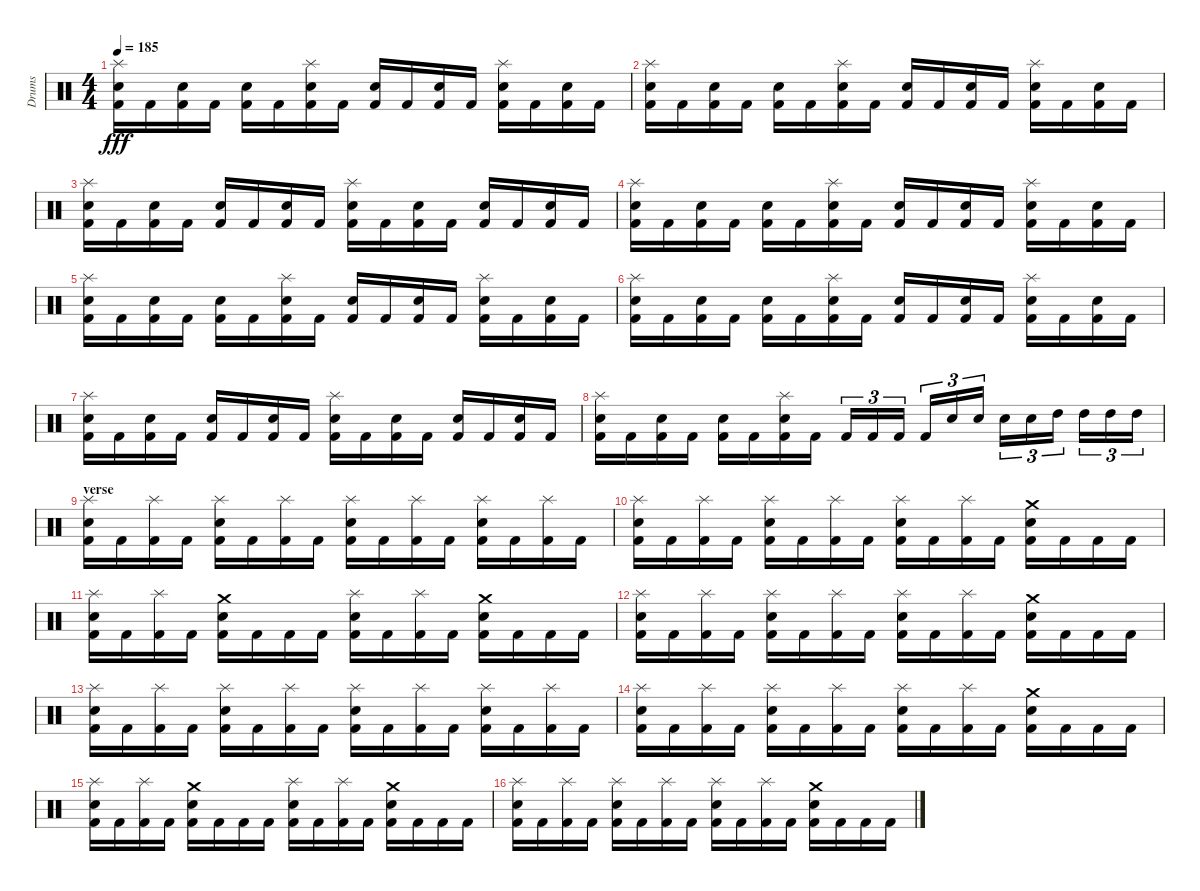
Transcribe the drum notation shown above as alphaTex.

\track ("Drums" "Drums") {instrument percussion}
\staff {score}
\articulation defaults
\ts (4 4)
\tempo 185
\clef neutral
\ks c
("Splash (hit)" "Snare (hit) 2" "Kick (hit) 2").16{dy fff} "Kick (hit) 2".16 ("Electric Snare (hit)" "Kick (hit) 2").16 "Kick (hit) 2".16 ("Electric Snare (hit)" "Kick (hit) 2").16 "Kick (hit) 2".16 ("Splash (hit)" "Snare (hit) 2" "Kick (hit) 2").16 "Kick (hit) 2".16 ("Electric Snare (hit)" "Kick (hit) 2").16 "Kick (hit) 2".16 ("Electric Snare (hit)" "Kick (hit) 2").16 "Kick (hit) 2".16 ("Splash (hit)" "Snare (hit) 2" "Kick (hit) 2").16 "Kick (hit) 2".16 ("Electric Snare (hit)" "Kick (hit) 2").16 "Kick (hit) 2".16 |
("Splash (hit)" "Snare (hit) 2" "Kick (hit) 2").16 "Kick (hit) 2".16 ("Electric Snare (hit)" "Kick (hit) 2").16 "Kick (hit) 2".16 ("Electric Snare (hit)" "Kick (hit) 2").16 "Kick (hit) 2".16 ("Splash (hit)" "Snare (hit) 2" "Kick (hit) 2").16 "Kick (hit) 2".16 ("Electric Snare (hit)" "Kick (hit) 2").16 "Kick (hit) 2".16 ("Electric Snare (hit)" "Kick (hit) 2").16 "Kick (hit) 2".16 ("Splash (hit)" "Snare (hit) 2" "Kick (hit) 2").16 "Kick (hit) 2".16 ("Electric Snare (hit)" "Kick (hit) 2").16 "Kick (hit) 2".16 |
("Splash (hit)" "Snare (hit) 2" "Kick (hit) 2").16 "Kick (hit) 2".16 ("Electric Snare (hit)" "Kick (hit) 2").16 "Kick (hit) 2".16 ("Electric Snare (hit)" "Kick (hit) 2").16 "Kick (hit) 2".16 ("Snare (hit) 2" "Kick (hit) 2").16 "Kick (hit) 2".16 ("Splash (hit)" "Snare (hit) 2" "Kick (hit) 2").16 "Kick (hit) 2".16 ("Electric Snare (hit)" "Kick (hit) 2").16 "Kick (hit) 2".16 ("Electric Snare (hit)" "Kick (hit) 2").16 "Kick (hit) 2".16 ("Snare (hit) 2" "Kick (hit) 2").16 "Kick (hit) 2".16 |
("Splash (hit)" "Snare (hit) 2" "Kick (hit) 2").16 "Kick (hit) 2".16 ("Electric Snare (hit)" "Kick (hit) 2").16 "Kick (hit) 2".16 ("Electric Snare (hit)" "Kick (hit) 2").16 "Kick (hit) 2".16 ("Splash (hit)" "Snare (hit) 2" "Kick (hit) 2").16 "Kick (hit) 2".16 ("Electric Snare (hit)" "Kick (hit) 2").16 "Kick (hit) 2".16 ("Electric Snare (hit)" "Kick (hit) 2").16 "Kick (hit) 2".16 ("Splash (hit)" "Snare (hit) 2" "Kick (hit) 2").16 "Kick (hit) 2".16 ("Electric Snare (hit)" "Kick (hit) 2").16 "Kick (hit) 2".16 |
("Splash (hit)" "Snare (hit) 2" "Kick (hit) 2").16 "Kick (hit) 2".16 ("Electric Snare (hit)" "Kick (hit) 2").16 "Kick (hit) 2".16 ("Electric Snare (hit)" "Kick (hit) 2").16 "Kick (hit) 2".16 ("Splash (hit)" "Snare (hit) 2" "Kick (hit) 2").16 "Kick (hit) 2".16 ("Electric Snare (hit)" "Kick (hit) 2").16 "Kick (hit) 2".16 ("Electric Snare (hit)" "Kick (hit) 2").16 "Kick (hit) 2".16 ("Splash (hit)" "Snare (hit) 2" "Kick (hit) 2").16 "Kick (hit) 2".16 ("Electric Snare (hit)" "Kick (hit) 2").16 "Kick (hit) 2".16 |
("Splash (hit)" "Snare (hit) 2" "Kick (hit) 2").16 "Kick (hit) 2".16 ("Electric Snare (hit)" "Kick (hit) 2").16 "Kick (hit) 2".16 ("Electric Snare (hit)" "Kick (hit) 2").16 "Kick (hit) 2".16 ("Splash (hit)" "Snare (hit) 2" "Kick (hit) 2").16 "Kick (hit) 2".16 ("Electric Snare (hit)" "Kick (hit) 2").16 "Kick (hit) 2".16 ("Electric Snare (hit)" "Kick (hit) 2").16 "Kick (hit) 2".16 ("Splash (hit)" "Snare (hit) 2" "Kick (hit) 2").16 "Kick (hit) 2".16 ("Electric Snare (hit)" "Kick (hit) 2").16 "Kick (hit) 2".16 |
("Splash (hit)" "Snare (hit) 2" "Kick (hit) 2").16 "Kick (hit) 2".16 ("Electric Snare (hit)" "Kick (hit) 2").16 "Kick (hit) 2".16 ("Electric Snare (hit)" "Kick (hit) 2").16 "Kick (hit) 2".16 ("Snare (hit) 2" "Kick (hit) 2").16 "Kick (hit) 2".16 ("Splash (hit)" "Snare (hit) 2" "Kick (hit) 2").16 "Kick (hit) 2".16 ("Electric Snare (hit)" "Kick (hit) 2").16 "Kick (hit) 2".16 ("Electric Snare (hit)" "Kick (hit) 2").16 "Kick (hit) 2".16 ("Snare (hit) 2" "Kick (hit) 2").16 "Kick (hit) 2".16 |
("Splash (hit)" "Snare (hit) 2" "Kick (hit) 2").16 "Kick (hit) 2".16 ("Electric Snare (hit)" "Kick (hit) 2").16 "Kick (hit) 2".16 ("Electric Snare (hit)" "Kick (hit) 2").16 "Kick (hit) 2".16 ("Splash (hit)" "Snare (hit) 2" "Kick (hit) 2").16 "Kick (hit) 2".16 "Kick (hit) 2".16{tu (3 2)} "Kick (hit) 2".16{tu (3 2)} "Kick (hit) 2".16{tu (3 2)} "Kick (hit) 2".16{tu (3 2)} "Electric Snare (hit)".16{tu (3 2)} "Electric Snare (hit)".16{tu (3 2)} "Snare (hit) 2".16{tu (3 2)} "Snare (hit) 2".16{tu (3 2)} "High Tom (hit)".16{tu (3 2)} "High Tom (hit)".16{tu (3 2)} "High Tom (hit)".16{tu (3 2)} "High Tom (hit)".16{tu (3 2)} |
\section ("" "verse")
("Splash (hit)" "Electric Snare (hit)" "Kick (hit) 2").16 "Kick (hit) 2".16 ("Splash (hit)" "Kick (hit) 2").16 "Kick (hit) 2".16 ("Splash (hit)" "Electric Snare (hit)" "Kick (hit) 2").16 "Kick (hit) 2".16 ("Splash (hit)" "Kick (hit) 2").16 "Kick (hit) 2".16 ("Splash (hit)" "Electric Snare (hit)" "Kick (hit) 2").16 "Kick (hit) 2".16 ("Splash (hit)" "Kick (hit) 2").16 "Kick (hit) 2".16 ("Splash (hit)" "Electric Snare (hit)" "Kick (hit) 2").16 "Kick (hit) 2".16 ("Splash (hit)" "Kick (hit) 2").16 "Kick (hit) 2".16 |
("Splash (hit)" "Electric Snare (hit)" "Kick (hit) 2").16 "Kick (hit) 2".16 ("Splash (hit)" "Kick (hit) 2").16 "Kick (hit) 2".16 ("Splash (hit)" "Electric Snare (hit)" "Kick (hit) 2").16 "Kick (hit) 2".16 ("Splash (hit)" "Kick (hit) 2").16 "Kick (hit) 2".16 ("Splash (hit)" "Electric Snare (hit)" "Kick (hit) 2").16 "Kick (hit) 2".16 ("Splash (hit)" "Kick (hit) 2").16 "Kick (hit) 2".16 ("Crash medium (hit)" "Electric Snare (hit)" "Kick (hit) 2").16 "Kick (hit) 2".16 "Kick (hit) 2".16 "Kick (hit) 2".16 |
("Splash (hit)" "Electric Snare (hit)" "Kick (hit) 2").16 "Kick (hit) 2".16 ("Splash (hit)" "Kick (hit) 2").16 "Kick (hit) 2".16 ("Crash medium (hit)" "Electric Snare (hit)" "Kick (hit) 2").16 "Kick (hit) 2".16 "Kick (hit) 2".16 "Kick (hit) 2".16 ("Splash (hit)" "Electric Snare (hit)" "Kick (hit) 2").16 "Kick (hit) 2".16 ("Splash (hit)" "Kick (hit) 2").16 "Kick (hit) 2".16 ("Crash medium (hit)" "Electric Snare (hit)" "Kick (hit) 2").16 "Kick (hit) 2".16 "Kick (hit) 2".16 "Kick (hit) 2".16 |
("Splash (hit)" "Electric Snare (hit)" "Kick (hit) 2").16 "Kick (hit) 2".16 ("Splash (hit)" "Kick (hit) 2").16 "Kick (hit) 2".16 ("Splash (hit)" "Electric Snare (hit)" "Kick (hit) 2").16 "Kick (hit) 2".16 ("Splash (hit)" "Kick (hit) 2").16 "Kick (hit) 2".16 ("Splash (hit)" "Electric Snare (hit)" "Kick (hit) 2").16 "Kick (hit) 2".16 ("Splash (hit)" "Kick (hit) 2").16 "Kick (hit) 2".16 ("Crash medium (hit)" "Electric Snare (hit)" "Kick (hit) 2").16 "Kick (hit) 2".16 "Kick (hit) 2".16 "Kick (hit) 2".16 |
("Splash (hit)" "Electric Snare (hit)" "Kick (hit) 2").16 "Kick (hit) 2".16 ("Splash (hit)" "Kick (hit) 2").16 "Kick (hit) 2".16 ("Splash (hit)" "Electric Snare (hit)" "Kick (hit) 2").16 "Kick (hit) 2".16 ("Splash (hit)" "Kick (hit) 2").16 "Kick (hit) 2".16 ("Splash (hit)" "Electric Snare (hit)" "Kick (hit) 2").16 "Kick (hit) 2".16 ("Splash (hit)" "Kick (hit) 2").16 "Kick (hit) 2".16 ("Splash (hit)" "Electric Snare (hit)" "Kick (hit) 2").16 "Kick (hit) 2".16 ("Splash (hit)" "Kick (hit) 2").16 "Kick (hit) 2".16 |
("Splash (hit)" "Electric Snare (hit)" "Kick (hit) 2").16 "Kick (hit) 2".16 ("Splash (hit)" "Kick (hit) 2").16 "Kick (hit) 2".16 ("Splash (hit)" "Electric Snare (hit)" "Kick (hit) 2").16 "Kick (hit) 2".16 ("Splash (hit)" "Kick (hit) 2").16 "Kick (hit) 2".16 ("Splash (hit)" "Electric Snare (hit)" "Kick (hit) 2").16 "Kick (hit) 2".16 ("Splash (hit)" "Kick (hit) 2").16 "Kick (hit) 2".16 ("Crash medium (hit)" "Electric Snare (hit)" "Kick (hit) 2").16 "Kick (hit) 2".16 "Kick (hit) 2".16 "Kick (hit) 2".16 |
("Splash (hit)" "Electric Snare (hit)" "Kick (hit) 2").16 "Kick (hit) 2".16 ("Splash (hit)" "Kick (hit) 2").16 "Kick (hit) 2".16 ("Crash medium (hit)" "Electric Snare (hit)" "Kick (hit) 2").16 "Kick (hit) 2".16 "Kick (hit) 2".16 "Kick (hit) 2".16 ("Splash (hit)" "Electric Snare (hit)" "Kick (hit) 2").16 "Kick (hit) 2".16 ("Splash (hit)" "Kick (hit) 2").16 "Kick (hit) 2".16 ("Crash medium (hit)" "Electric Snare (hit)" "Kick (hit) 2").16 "Kick (hit) 2".16 "Kick (hit) 2".16 "Kick (hit) 2".16 |
("Splash (hit)" "Electric Snare (hit)" "Kick (hit) 2").16 "Kick (hit) 2".16 ("Splash (hit)" "Kick (hit) 2").16 "Kick (hit) 2".16 ("Splash (hit)" "Electric Snare (hit)" "Kick (hit) 2").16 "Kick (hit) 2".16 ("Splash (hit)" "Kick (hit) 2").16 "Kick (hit) 2".16 ("Splash (hit)" "Electric Snare (hit)" "Kick (hit) 2").16 "Kick (hit) 2".16 ("Splash (hit)" "Kick (hit) 2").16 "Kick (hit) 2".16 ("Crash medium (hit)" "Electric Snare (hit)" "Kick (hit) 2").16 "Kick (hit) 2".16 "Kick (hit) 2".16 "Kick (hit) 2".16
